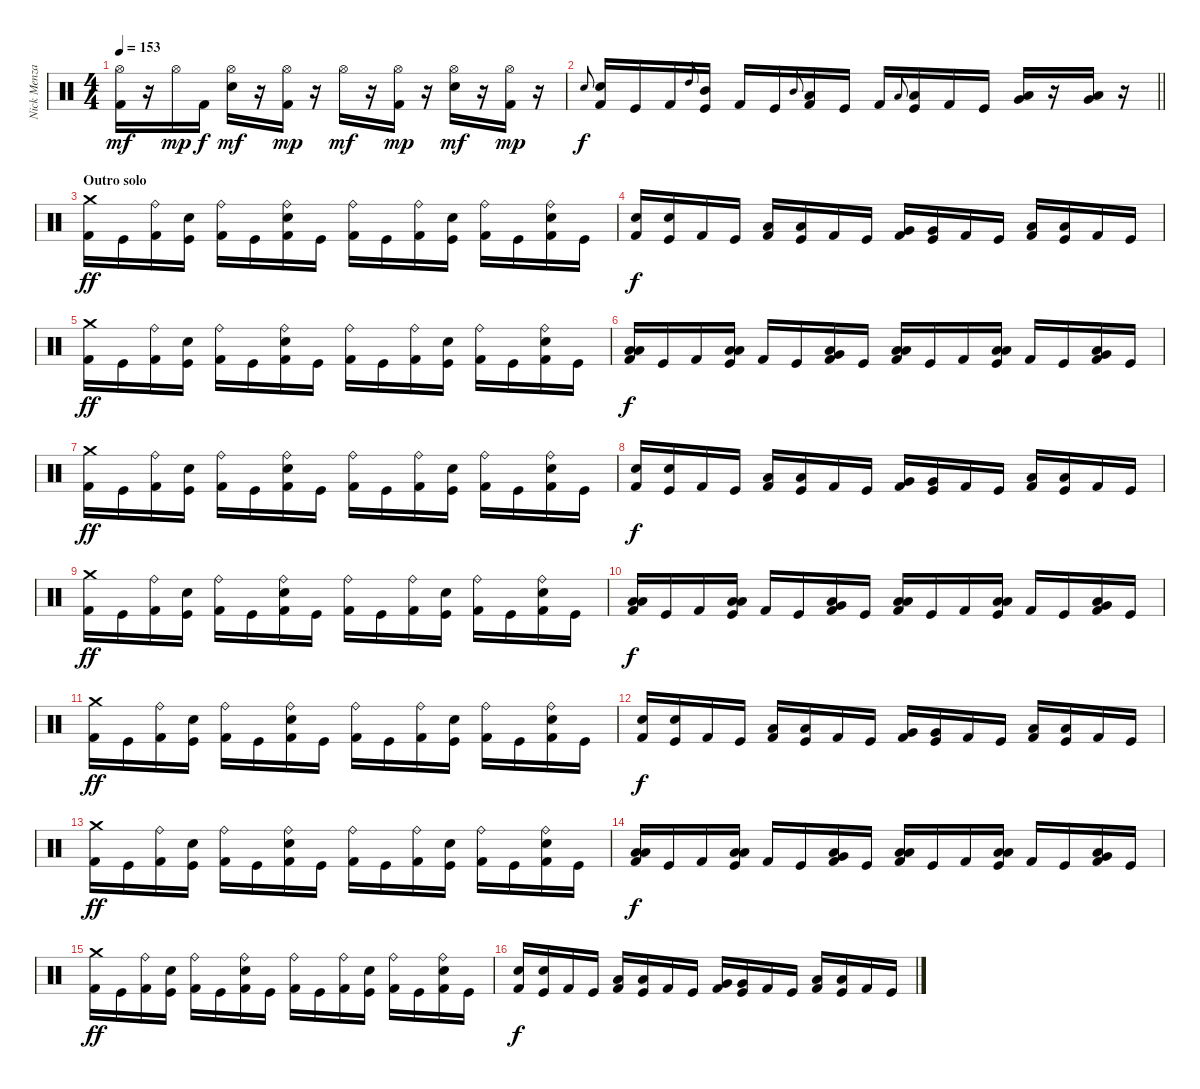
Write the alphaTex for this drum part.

\track ("Nick Menza" "Nick Menza") {instrument percussion}
\staff {score}
\articulation defaults
\ts (4 4)
\tempo 153
\clef neutral
\ks c
("Hi-Hat (open)" "Kick (hit) 2").16{dy mf} r.16 "Hi-Hat (open)".16{dy mp} "Kick (hit) 2".16{dy f} ("Hi-Hat (open)" "Electric Snare (hit)").16{dy mf} r.16 ("Hi-Hat (open)" "Kick (hit) 2").16{dy mp} r.16 "Hi-Hat (open)".16{dy mf} r.16 ("Hi-Hat (open)" "Kick (hit) 2").16{dy mp} r.16 ("Hi-Hat (open)" "Electric Snare (hit)").16{dy mf} r.16 ("Hi-Hat (open)" "Kick (hit) 2").16{dy mp} r.16 |
\barLineRight lightlight "Electric Snare (hit)".8{gr onbeat dy f}
("Electric Snare (hit)" "Kick (hit) 2").16 "Kick (hit)".16 "Kick (hit) 2".16 "High Tom (hit)".8{gr onbeat} ("Mid Tom (hit)" "Kick (hit)").16 "Kick (hit) 2".16 "Kick (hit)".16 "Mid Tom (hit)".8{gr onbeat} ("Low Tom (hit)" "Kick (hit) 2").16 "Kick (hit)".16 "Kick (hit) 2".16 "Low Tom (hit)".8{gr onbeat} ("Low Tom (hit)" "Kick (hit)").16 "Kick (hit) 2".16 "Kick (hit)".16 ("Low Floor Tom (hit)" "Very Low Tom (hit)").16 r.16 ("Low Floor Tom (hit)" "Very Low Tom (hit)").16 r.16 |
\section ("" "Outro solo")
("Crash medium (hit)" "Kick (hit) 2").16{dy ff} "Kick (hit)".16 ("Ride (bell)" "Kick (hit) 2").16 ("Electric Snare (hit)" "Kick (hit)").16 ("Ride (bell)" "Kick (hit) 2").16 "Kick (hit)".16 ("Ride (bell)" "Electric Snare (hit)" "Kick (hit) 2").16 "Kick (hit)".16 ("Ride (bell)" "Kick (hit) 2").16 "Kick (hit)".16 ("Ride (bell)" "Kick (hit) 2").16 ("Electric Snare (hit)" "Kick (hit)").16 ("Ride (bell)" "Kick (hit) 2").16 "Kick (hit)".16 ("Ride (bell)" "Electric Snare (hit)" "Kick (hit) 2").16 "Kick (hit)".16 |
("Electric Snare (hit)" "Kick (hit) 2").16{dy f} ("Electric Snare (hit)" "Kick (hit)").16 "Kick (hit) 2".16 "Kick (hit)".16 ("Low Tom (hit)" "Kick (hit) 2").16 ("Low Tom (hit)" "Kick (hit)").16 "Kick (hit) 2".16 "Kick (hit)".16 ("Very Low Tom (hit)" "Kick (hit) 2").16 ("Very Low Tom (hit)" "Kick (hit)").16 "Kick (hit) 2".16 "Kick (hit)".16 ("Low Floor Tom (hit)" "Kick (hit) 2").16 ("Low Floor Tom (hit)" "Kick (hit)").16 "Kick (hit) 2".16 "Kick (hit)".16 |
("Crash medium (hit)" "Kick (hit) 2").16{dy ff} "Kick (hit)".16 ("Ride (bell)" "Kick (hit) 2").16 ("Electric Snare (hit)" "Kick (hit)").16 ("Ride (bell)" "Kick (hit) 2").16 "Kick (hit)".16 ("Ride (bell)" "Electric Snare (hit)" "Kick (hit) 2").16 "Kick (hit)".16 ("Ride (bell)" "Kick (hit) 2").16 "Kick (hit)".16 ("Ride (bell)" "Kick (hit) 2").16 ("Electric Snare (hit)" "Kick (hit)").16 ("Ride (bell)" "Kick (hit) 2").16 "Kick (hit)".16 ("Ride (bell)" "Electric Snare (hit)" "Kick (hit) 2").16 "Kick (hit)".16 |
("Low Floor Tom (hit)" "Low Tom (hit)" "Kick (hit) 2").16{dy f} "Kick (hit)".16 "Kick (hit) 2".16 ("Low Floor Tom (hit)" "Low Tom (hit)" "Kick (hit)").16 "Kick (hit) 2".16 "Kick (hit)".16 ("Low Floor Tom (hit)" "Very Low Tom (hit)" "Kick (hit) 2").16 "Kick (hit)".16 ("Low Floor Tom (hit)" "Low Tom (hit)" "Kick (hit) 2").16 "Kick (hit)".16 "Kick (hit) 2".16 ("Low Floor Tom (hit)" "Low Tom (hit)" "Kick (hit)").16 "Kick (hit) 2".16 "Kick (hit)".16 ("Low Floor Tom (hit)" "Very Low Tom (hit)" "Kick (hit) 2").16 "Kick (hit)".16 |
("Crash medium (hit)" "Kick (hit) 2").16{dy ff} "Kick (hit)".16 ("Ride (bell)" "Kick (hit) 2").16 ("Electric Snare (hit)" "Kick (hit)").16 ("Ride (bell)" "Kick (hit) 2").16 "Kick (hit)".16 ("Ride (bell)" "Electric Snare (hit)" "Kick (hit) 2").16 "Kick (hit)".16 ("Ride (bell)" "Kick (hit) 2").16 "Kick (hit)".16 ("Ride (bell)" "Kick (hit) 2").16 ("Electric Snare (hit)" "Kick (hit)").16 ("Ride (bell)" "Kick (hit) 2").16 "Kick (hit)".16 ("Ride (bell)" "Electric Snare (hit)" "Kick (hit) 2").16 "Kick (hit)".16 |
("Electric Snare (hit)" "Kick (hit) 2").16{dy f} ("Electric Snare (hit)" "Kick (hit)").16 "Kick (hit) 2".16 "Kick (hit)".16 ("Low Tom (hit)" "Kick (hit) 2").16 ("Low Tom (hit)" "Kick (hit)").16 "Kick (hit) 2".16 "Kick (hit)".16 ("Very Low Tom (hit)" "Kick (hit) 2").16 ("Very Low Tom (hit)" "Kick (hit)").16 "Kick (hit) 2".16 "Kick (hit)".16 ("Low Floor Tom (hit)" "Kick (hit) 2").16 ("Low Floor Tom (hit)" "Kick (hit)").16 "Kick (hit) 2".16 "Kick (hit)".16 |
("Crash medium (hit)" "Kick (hit) 2").16{dy ff} "Kick (hit)".16 ("Ride (bell)" "Kick (hit) 2").16 ("Electric Snare (hit)" "Kick (hit)").16 ("Ride (bell)" "Kick (hit) 2").16 "Kick (hit)".16 ("Ride (bell)" "Electric Snare (hit)" "Kick (hit) 2").16 "Kick (hit)".16 ("Ride (bell)" "Kick (hit) 2").16 "Kick (hit)".16 ("Ride (bell)" "Kick (hit) 2").16 ("Electric Snare (hit)" "Kick (hit)").16 ("Ride (bell)" "Kick (hit) 2").16 "Kick (hit)".16 ("Ride (bell)" "Electric Snare (hit)" "Kick (hit) 2").16 "Kick (hit)".16 |
("Low Floor Tom (hit)" "Low Tom (hit)" "Kick (hit) 2").16{dy f} "Kick (hit)".16 "Kick (hit) 2".16 ("Low Floor Tom (hit)" "Low Tom (hit)" "Kick (hit)").16 "Kick (hit) 2".16 "Kick (hit)".16 ("Low Floor Tom (hit)" "Very Low Tom (hit)" "Kick (hit) 2").16 "Kick (hit)".16 ("Low Floor Tom (hit)" "Low Tom (hit)" "Kick (hit) 2").16 "Kick (hit)".16 "Kick (hit) 2".16 ("Low Floor Tom (hit)" "Low Tom (hit)" "Kick (hit)").16 "Kick (hit) 2".16 "Kick (hit)".16 ("Low Floor Tom (hit)" "Very Low Tom (hit)" "Kick (hit) 2").16 "Kick (hit)".16 |
("Crash medium (hit)" "Kick (hit) 2").16{dy ff} "Kick (hit)".16 ("Ride (bell)" "Kick (hit) 2").16 ("Electric Snare (hit)" "Kick (hit)").16 ("Ride (bell)" "Kick (hit) 2").16 "Kick (hit)".16 ("Ride (bell)" "Electric Snare (hit)" "Kick (hit) 2").16 "Kick (hit)".16 ("Ride (bell)" "Kick (hit) 2").16 "Kick (hit)".16 ("Ride (bell)" "Kick (hit) 2").16 ("Electric Snare (hit)" "Kick (hit)").16 ("Ride (bell)" "Kick (hit) 2").16 "Kick (hit)".16 ("Ride (bell)" "Electric Snare (hit)" "Kick (hit) 2").16 "Kick (hit)".16 |
("Electric Snare (hit)" "Kick (hit) 2").16{dy f} ("Electric Snare (hit)" "Kick (hit)").16 "Kick (hit) 2".16 "Kick (hit)".16 ("Low Tom (hit)" "Kick (hit) 2").16 ("Low Tom (hit)" "Kick (hit)").16 "Kick (hit) 2".16 "Kick (hit)".16 ("Very Low Tom (hit)" "Kick (hit) 2").16 ("Very Low Tom (hit)" "Kick (hit)").16 "Kick (hit) 2".16 "Kick (hit)".16 ("Low Floor Tom (hit)" "Kick (hit) 2").16 ("Low Floor Tom (hit)" "Kick (hit)").16 "Kick (hit) 2".16 "Kick (hit)".16 |
("Crash medium (hit)" "Kick (hit) 2").16{dy ff} "Kick (hit)".16 ("Ride (bell)" "Kick (hit) 2").16 ("Electric Snare (hit)" "Kick (hit)").16 ("Ride (bell)" "Kick (hit) 2").16 "Kick (hit)".16 ("Ride (bell)" "Electric Snare (hit)" "Kick (hit) 2").16 "Kick (hit)".16 ("Ride (bell)" "Kick (hit) 2").16 "Kick (hit)".16 ("Ride (bell)" "Kick (hit) 2").16 ("Electric Snare (hit)" "Kick (hit)").16 ("Ride (bell)" "Kick (hit) 2").16 "Kick (hit)".16 ("Ride (bell)" "Electric Snare (hit)" "Kick (hit) 2").16 "Kick (hit)".16 |
("Low Floor Tom (hit)" "Low Tom (hit)" "Kick (hit) 2").16{dy f} "Kick (hit)".16 "Kick (hit) 2".16 ("Low Floor Tom (hit)" "Low Tom (hit)" "Kick (hit)").16 "Kick (hit) 2".16 "Kick (hit)".16 ("Low Floor Tom (hit)" "Very Low Tom (hit)" "Kick (hit) 2").16 "Kick (hit)".16 ("Low Floor Tom (hit)" "Low Tom (hit)" "Kick (hit) 2").16 "Kick (hit)".16 "Kick (hit) 2".16 ("Low Floor Tom (hit)" "Low Tom (hit)" "Kick (hit)").16 "Kick (hit) 2".16 "Kick (hit)".16 ("Low Floor Tom (hit)" "Very Low Tom (hit)" "Kick (hit) 2").16 "Kick (hit)".16 |
("Crash medium (hit)" "Kick (hit) 2").16{dy ff} "Kick (hit)".16 ("Ride (bell)" "Kick (hit) 2").16 ("Electric Snare (hit)" "Kick (hit)").16 ("Ride (bell)" "Kick (hit) 2").16 "Kick (hit)".16 ("Ride (bell)" "Electric Snare (hit)" "Kick (hit) 2").16 "Kick (hit)".16 ("Ride (bell)" "Kick (hit) 2").16 "Kick (hit)".16 ("Ride (bell)" "Kick (hit) 2").16 ("Electric Snare (hit)" "Kick (hit)").16 ("Ride (bell)" "Kick (hit) 2").16 "Kick (hit)".16 ("Ride (bell)" "Electric Snare (hit)" "Kick (hit) 2").16 "Kick (hit)".16 |
("Electric Snare (hit)" "Kick (hit) 2").16{dy f} ("Electric Snare (hit)" "Kick (hit)").16 "Kick (hit) 2".16 "Kick (hit)".16 ("Low Tom (hit)" "Kick (hit) 2").16 ("Low Tom (hit)" "Kick (hit)").16 "Kick (hit) 2".16 "Kick (hit)".16 ("Very Low Tom (hit)" "Kick (hit) 2").16 ("Very Low Tom (hit)" "Kick (hit)").16 "Kick (hit) 2".16 "Kick (hit)".16 ("Low Floor Tom (hit)" "Kick (hit) 2").16 ("Low Floor Tom (hit)" "Kick (hit)").16 "Kick (hit) 2".16 "Kick (hit)".16
